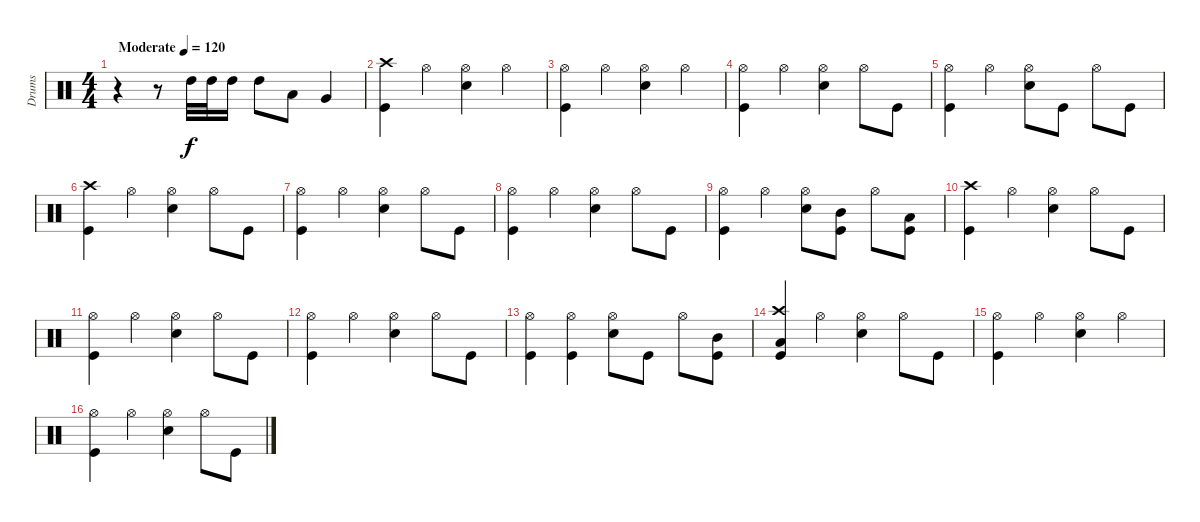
\track ("Drums" "Drums") {instrument percussion}
\staff {score}
\articulation defaults
\ts (4 4)
\tempo (120 "Moderate")
\clef neutral
\ks c
r.4{dy f} r.8 "High Tom (hit)".32 "High Tom (hit)".32 "High Tom (hit)".16 "High Tom (hit)".8 "Low Tom (hit)".8 "Very Low Tom (hit)".4 |
("Crash high (hit)" "Kick (hit)").4 "Hi-Hat (open)".4 ("Hi-Hat (open)" "Snare (hit) 2").4 "Hi-Hat (open)".4 |
("Hi-Hat (open)" "Kick (hit)").4 "Hi-Hat (open)".4 ("Hi-Hat (open)" "Snare (hit) 2").4 "Hi-Hat (open)".4 |
("Hi-Hat (open)" "Kick (hit)").4 "Hi-Hat (open)".4 ("Hi-Hat (open)" "Snare (hit) 2").4 "Hi-Hat (open)".8 "Kick (hit)".8 |
("Hi-Hat (open)" "Kick (hit)").4 "Hi-Hat (open)".4 ("Hi-Hat (open)" "Snare (hit) 2").8 "Kick (hit)".8 "Hi-Hat (open)".8 "Kick (hit)".8 |
("Crash high (hit)" "Kick (hit)").4 "Hi-Hat (open)".4 ("Hi-Hat (open)" "Snare (hit) 2").4 "Hi-Hat (open)".8 "Kick (hit)".8 |
("Hi-Hat (open)" "Kick (hit)").4 "Hi-Hat (open)".4 ("Hi-Hat (open)" "Snare (hit) 2").4 "Hi-Hat (open)".8 "Kick (hit)".8 |
("Hi-Hat (open)" "Kick (hit)").4 "Hi-Hat (open)".4 ("Hi-Hat (open)" "Snare (hit) 2").4 "Hi-Hat (open)".8 "Kick (hit)".8 |
("Hi-Hat (open)" "Kick (hit)").4 "Hi-Hat (open)".4 ("Hi-Hat (open)" "Snare (hit) 2").8 ("Mid Tom (hit)" "Kick (hit)").8 "Hi-Hat (open)".8 ("Low Tom (hit)" "Kick (hit)").8 |
("Crash high (hit)" "Kick (hit)").4 "Hi-Hat (open)".4 ("Hi-Hat (open)" "Snare (hit) 2").4 "Hi-Hat (open)".8 "Kick (hit)".8 |
("Hi-Hat (open)" "Kick (hit)").4 "Hi-Hat (open)".4 ("Hi-Hat (open)" "Snare (hit) 2").4 "Hi-Hat (open)".8 "Kick (hit)".8 |
("Hi-Hat (open)" "Kick (hit)").4 "Hi-Hat (open)".4 ("Hi-Hat (open)" "Snare (hit) 2").4 "Hi-Hat (open)".8 "Kick (hit)".8 |
("Hi-Hat (open)" "Kick (hit)").4 ("Hi-Hat (open)" "Kick (hit)").4 ("Hi-Hat (open)" "Snare (hit) 2").8 "Kick (hit)".8 "Hi-Hat (open)".8 ("Mid Tom (hit)" "Kick (hit)").8 |
("Crash high (hit)" "Low Tom (hit)" "Kick (hit)").4 "Hi-Hat (open)".4 ("Hi-Hat (open)" "Snare (hit) 2").4 "Hi-Hat (open)".8 "Kick (hit)".8 |
("Hi-Hat (open)" "Kick (hit)").4 "Hi-Hat (open)".4 ("Hi-Hat (open)" "Snare (hit) 2").4 "Hi-Hat (open)".4 |
("Hi-Hat (open)" "Kick (hit)").4 "Hi-Hat (open)".4 ("Hi-Hat (open)" "Snare (hit) 2").4 "Hi-Hat (open)".8 "Kick (hit)".8
